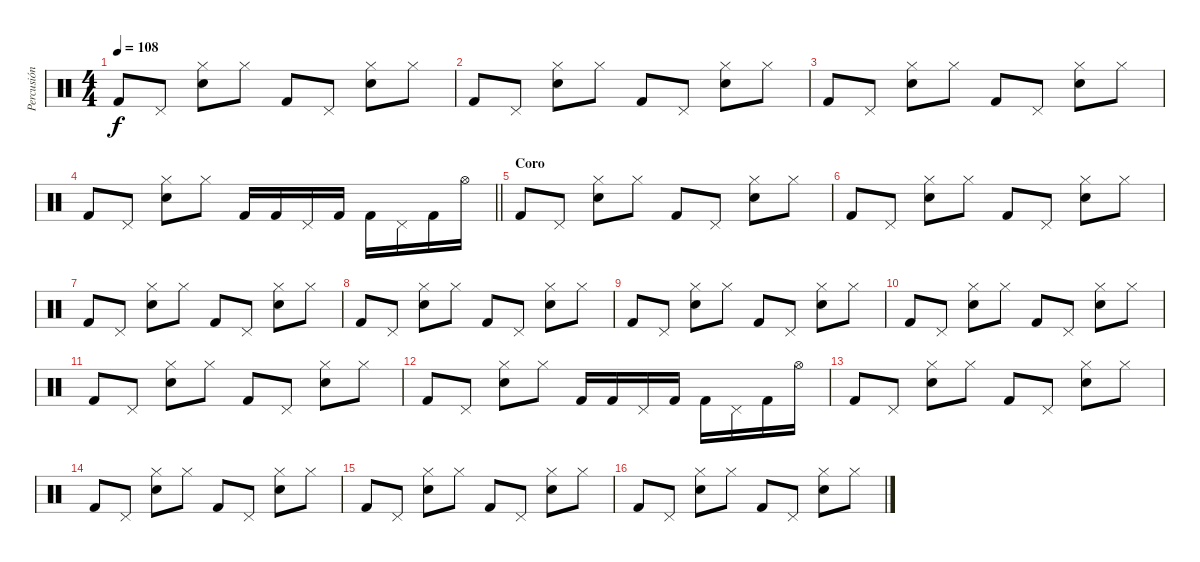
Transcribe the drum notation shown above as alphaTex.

\track ("Percusión" "Percusión") {instrument percussion}
\staff {score}
\articulation defaults
\ts (4 4)
\tempo 108
\clef neutral
\ks c "Kick (hit) 2".8{dy f} "Pedal Hi-Hat (hit)".8
("Electric Snare (hit)" "Hi-Hat (closed)").8 "Hi-Hat (closed)".8 "Kick (hit) 2".8 "Pedal Hi-Hat (hit)".8 ("Electric Snare (hit)" "Hi-Hat (closed)").8 "Hi-Hat (closed)".8 |
"Kick (hit) 2".8 "Pedal Hi-Hat (hit)".8 ("Electric Snare (hit)" "Hi-Hat (closed)").8 "Hi-Hat (closed)".8 "Kick (hit) 2".8 "Pedal Hi-Hat (hit)".8 ("Electric Snare (hit)" "Hi-Hat (closed)").8 "Hi-Hat (closed)".8 |
"Kick (hit) 2".8 "Pedal Hi-Hat (hit)".8 ("Electric Snare (hit)" "Hi-Hat (closed)").8 "Hi-Hat (closed)".8 "Kick (hit) 2".8 "Pedal Hi-Hat (hit)".8 ("Electric Snare (hit)" "Hi-Hat (closed)").8 "Hi-Hat (closed)".8 |
\barLineRight lightlight "Kick (hit) 2".8 "Pedal Hi-Hat (hit)".8
("Electric Snare (hit)" "Hi-Hat (closed)").8 "Hi-Hat (closed)".8 "Kick (hit) 2".16 "Kick (hit) 2".16 "Pedal Hi-Hat (hit)".16 "Kick (hit) 2".16 "Kick (hit) 2".16 "Pedal Hi-Hat (hit)".16 "Kick (hit) 2".16 "Hi-Hat (open)".16 |
\section ("" "Coro")
"Kick (hit) 2".8 "Pedal Hi-Hat (hit)".8 ("Electric Snare (hit)" "Hi-Hat (closed)").8 "Hi-Hat (closed)".8 "Kick (hit) 2".8 "Pedal Hi-Hat (hit)".8 ("Electric Snare (hit)" "Hi-Hat (closed)").8 "Hi-Hat (closed)".8 |
"Kick (hit) 2".8 "Pedal Hi-Hat (hit)".8 ("Electric Snare (hit)" "Hi-Hat (closed)").8 "Hi-Hat (closed)".8 "Kick (hit) 2".8 "Pedal Hi-Hat (hit)".8 ("Electric Snare (hit)" "Hi-Hat (closed)").8 "Hi-Hat (closed)".8 |
"Kick (hit) 2".8 "Pedal Hi-Hat (hit)".8 ("Electric Snare (hit)" "Hi-Hat (closed)").8 "Hi-Hat (closed)".8 "Kick (hit) 2".8 "Pedal Hi-Hat (hit)".8 ("Electric Snare (hit)" "Hi-Hat (closed)").8 "Hi-Hat (closed)".8 |
"Kick (hit) 2".8 "Pedal Hi-Hat (hit)".8 ("Electric Snare (hit)" "Hi-Hat (closed)").8 "Hi-Hat (closed)".8 "Kick (hit) 2".8 "Pedal Hi-Hat (hit)".8 ("Electric Snare (hit)" "Hi-Hat (closed)").8 "Hi-Hat (closed)".8 |
"Kick (hit) 2".8 "Pedal Hi-Hat (hit)".8 ("Electric Snare (hit)" "Hi-Hat (closed)").8 "Hi-Hat (closed)".8 "Kick (hit) 2".8 "Pedal Hi-Hat (hit)".8 ("Electric Snare (hit)" "Hi-Hat (closed)").8 "Hi-Hat (closed)".8 |
"Kick (hit) 2".8 "Pedal Hi-Hat (hit)".8 ("Electric Snare (hit)" "Hi-Hat (closed)").8 "Hi-Hat (closed)".8 "Kick (hit) 2".8 "Pedal Hi-Hat (hit)".8 ("Electric Snare (hit)" "Hi-Hat (closed)").8 "Hi-Hat (closed)".8 |
"Kick (hit) 2".8 "Pedal Hi-Hat (hit)".8 ("Electric Snare (hit)" "Hi-Hat (closed)").8 "Hi-Hat (closed)".8 "Kick (hit) 2".8 "Pedal Hi-Hat (hit)".8 ("Electric Snare (hit)" "Hi-Hat (closed)").8 "Hi-Hat (closed)".8 |
"Kick (hit) 2".8 "Pedal Hi-Hat (hit)".8 ("Electric Snare (hit)" "Hi-Hat (closed)").8 "Hi-Hat (closed)".8 "Kick (hit) 2".16 "Kick (hit) 2".16 "Pedal Hi-Hat (hit)".16 "Kick (hit) 2".16 "Kick (hit) 2".16 "Pedal Hi-Hat (hit)".16 "Kick (hit) 2".16 "Hi-Hat (open)".16 |
"Kick (hit) 2".8 "Pedal Hi-Hat (hit)".8 ("Electric Snare (hit)" "Hi-Hat (closed)").8 "Hi-Hat (closed)".8 "Kick (hit) 2".8 "Pedal Hi-Hat (hit)".8 ("Electric Snare (hit)" "Hi-Hat (closed)").8 "Hi-Hat (closed)".8 |
"Kick (hit) 2".8 "Pedal Hi-Hat (hit)".8 ("Electric Snare (hit)" "Hi-Hat (closed)").8 "Hi-Hat (closed)".8 "Kick (hit) 2".8 "Pedal Hi-Hat (hit)".8 ("Electric Snare (hit)" "Hi-Hat (closed)").8 "Hi-Hat (closed)".8 |
"Kick (hit) 2".8 "Pedal Hi-Hat (hit)".8 ("Electric Snare (hit)" "Hi-Hat (closed)").8 "Hi-Hat (closed)".8 "Kick (hit) 2".8 "Pedal Hi-Hat (hit)".8 ("Electric Snare (hit)" "Hi-Hat (closed)").8 "Hi-Hat (closed)".8 |
"Kick (hit) 2".8 "Pedal Hi-Hat (hit)".8 ("Electric Snare (hit)" "Hi-Hat (closed)").8 "Hi-Hat (closed)".8 "Kick (hit) 2".8 "Pedal Hi-Hat (hit)".8 ("Electric Snare (hit)" "Hi-Hat (closed)").8 "Hi-Hat (closed)".8
